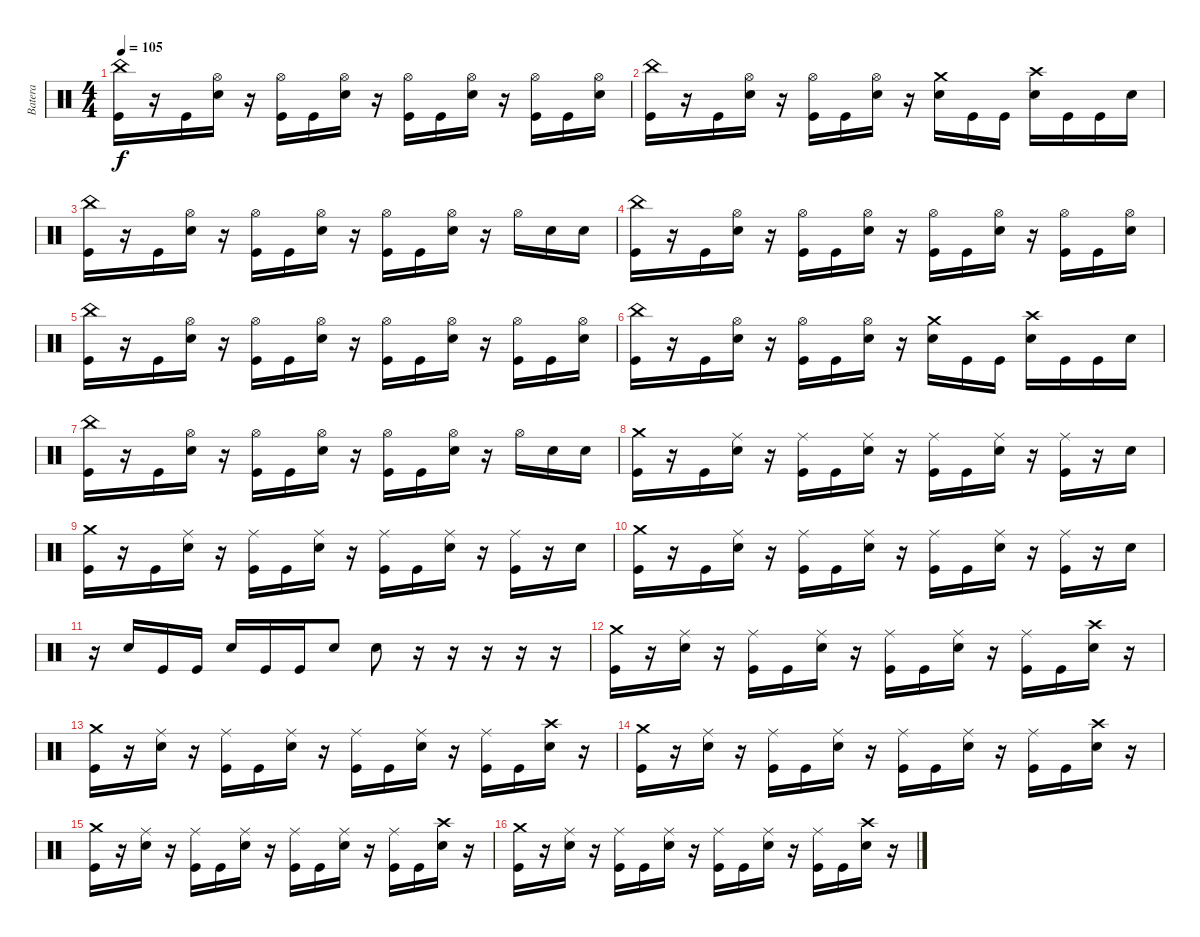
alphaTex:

\track ("Batera" "Batera") {instrument percussion}
\staff {score}
\articulation defaults
\ts (4 4)
\tempo 105
\clef neutral
\ks c
("China (hit)" "Kick (hit)").16{dy f} r.16 "Kick (hit)".16 ("Hi-Hat (open)" "Snare (hit) 2").16 r.16 ("Hi-Hat (open)" "Kick (hit)").16 "Kick (hit)".16 ("Hi-Hat (open)" "Snare (hit) 2").16 r.16 ("Hi-Hat (open)" "Kick (hit)").16 "Kick (hit)".16 ("Hi-Hat (open)" "Snare (hit) 2").16 r.16 ("Hi-Hat (open)" "Kick (hit)").16 "Kick (hit)".16 ("Hi-Hat (open)" "Snare (hit) 2").16 |
("China (hit)" "Kick (hit)").16 r.16 "Kick (hit)".16 ("Hi-Hat (open)" "Snare (hit) 2").16 r.16 ("Hi-Hat (open)" "Kick (hit)").16 "Kick (hit)".16 ("Hi-Hat (open)" "Snare (hit) 2").16 r.16 ("Crash medium (hit)" "Snare (hit) 2").16 "Kick (hit)".16 "Kick (hit)".16 ("Crash high (hit)" "Snare (hit) 2").16 "Kick (hit)".16 "Kick (hit)".16 "Snare (hit) 2".16 |
("China (hit)" "Kick (hit)").16 r.16 "Kick (hit)".16 ("Hi-Hat (open)" "Snare (hit) 2").16 r.16 ("Hi-Hat (open)" "Kick (hit)").16 "Kick (hit)".16 ("Hi-Hat (open)" "Snare (hit) 2").16 r.16 ("Hi-Hat (open)" "Kick (hit)").16 "Kick (hit)".16 ("Hi-Hat (open)" "Snare (hit) 2").16 r.16 "Hi-Hat (open)".16 "Snare (hit) 2".16 "Snare (hit) 2".16 |
("China (hit)" "Kick (hit)").16 r.16 "Kick (hit)".16 ("Hi-Hat (open)" "Snare (hit) 2").16 r.16 ("Hi-Hat (open)" "Kick (hit)").16 "Kick (hit)".16 ("Hi-Hat (open)" "Snare (hit) 2").16 r.16 ("Hi-Hat (open)" "Kick (hit)").16 "Kick (hit)".16 ("Hi-Hat (open)" "Snare (hit) 2").16 r.16 ("Hi-Hat (open)" "Kick (hit)").16 "Kick (hit)".16 ("Hi-Hat (open)" "Snare (hit) 2").16 |
("China (hit)" "Kick (hit)").16 r.16 "Kick (hit)".16 ("Hi-Hat (open)" "Snare (hit) 2").16 r.16 ("Hi-Hat (open)" "Kick (hit)").16 "Kick (hit)".16 ("Hi-Hat (open)" "Snare (hit) 2").16 r.16 ("Hi-Hat (open)" "Kick (hit)").16 "Kick (hit)".16 ("Hi-Hat (open)" "Snare (hit) 2").16 r.16 ("Hi-Hat (open)" "Kick (hit)").16 "Kick (hit)".16 ("Hi-Hat (open)" "Snare (hit) 2").16 |
("China (hit)" "Kick (hit)").16 r.16 "Kick (hit)".16 ("Hi-Hat (open)" "Snare (hit) 2").16 r.16 ("Hi-Hat (open)" "Kick (hit)").16 "Kick (hit)".16 ("Hi-Hat (open)" "Snare (hit) 2").16 r.16 ("Crash medium (hit)" "Snare (hit) 2").16 "Kick (hit)".16 "Kick (hit)".16 ("Crash high (hit)" "Snare (hit) 2").16 "Kick (hit)".16 "Kick (hit)".16 "Snare (hit) 2".16 |
("China (hit)" "Kick (hit)").16 r.16 "Kick (hit)".16 ("Hi-Hat (open)" "Snare (hit) 2").16 r.16 ("Hi-Hat (open)" "Kick (hit)").16 "Kick (hit)".16 ("Hi-Hat (open)" "Snare (hit) 2").16 r.16 ("Hi-Hat (open)" "Kick (hit)").16 "Kick (hit)".16 ("Hi-Hat (open)" "Snare (hit) 2").16 r.16 "Hi-Hat (open)".16 "Snare (hit) 2".16 "Snare (hit) 2".16 |
("Crash medium (hit)" "Kick (hit)").16 r.16 "Kick (hit)".16 ("Ride (middle)" "Snare (hit) 2").16 r.16 ("Ride (middle)" "Kick (hit)").16 "Kick (hit)".16 ("Ride (middle)" "Snare (hit) 2").16 r.16 ("Ride (middle)" "Kick (hit)").16 "Kick (hit)".16 ("Ride (middle)" "Snare (hit) 2").16 r.16 ("Ride (middle)" "Kick (hit)").16 r.16 "Snare (hit) 2".16 |
("Crash medium (hit)" "Kick (hit)").16 r.16 "Kick (hit)".16 ("Ride (middle)" "Snare (hit) 2").16 r.16 ("Ride (middle)" "Kick (hit)").16 "Kick (hit)".16 ("Ride (middle)" "Snare (hit) 2").16 r.16 ("Ride (middle)" "Kick (hit)").16 "Kick (hit)".16 ("Ride (middle)" "Snare (hit) 2").16 r.16 ("Ride (middle)" "Kick (hit)").16 r.16 "Snare (hit) 2".16 |
("Crash medium (hit)" "Kick (hit)").16 r.16 "Kick (hit)".16 ("Ride (middle)" "Snare (hit) 2").16 r.16 ("Ride (middle)" "Kick (hit)").16 "Kick (hit)".16 ("Ride (middle)" "Snare (hit) 2").16 r.16 ("Ride (middle)" "Kick (hit)").16 "Kick (hit)".16 ("Ride (middle)" "Snare (hit) 2").16 r.16 ("Ride (middle)" "Kick (hit)").16 r.16 "Snare (hit) 2".16 |
r.16 "Snare (hit) 2".16 "Kick (hit)".16 "Kick (hit)".16 "Snare (hit) 2".16 "Kick (hit)".16 "Kick (hit)".16 "Snare (hit) 2".8 "Snare (hit) 2".8 r.16 r.16 r.16 r.16 r.16 |
("Crash medium (hit)" "Kick (hit)").16 r.16 ("Ride (middle)" "Snare (hit) 2").16 r.16 ("Ride (middle)" "Kick (hit)").16 "Kick (hit)".16 ("Ride (middle)" "Snare (hit) 2").16 r.16 ("Ride (middle)" "Kick (hit)").16 "Kick (hit)".16 ("Ride (middle)" "Snare (hit) 2").16 r.16 ("Ride (middle)" "Kick (hit)").16 "Kick (hit)".16 ("Crash high (hit)" "Snare (hit) 2").16 r.16 |
("Crash medium (hit)" "Kick (hit)").16 r.16 ("Ride (middle)" "Snare (hit) 2").16 r.16 ("Ride (middle)" "Kick (hit)").16 "Kick (hit)".16 ("Ride (middle)" "Snare (hit) 2").16 r.16 ("Ride (middle)" "Kick (hit)").16 "Kick (hit)".16 ("Ride (middle)" "Snare (hit) 2").16 r.16 ("Ride (middle)" "Kick (hit)").16 "Kick (hit)".16 ("Crash high (hit)" "Snare (hit) 2").16 r.16 |
("Crash medium (hit)" "Kick (hit)").16 r.16 ("Ride (middle)" "Snare (hit) 2").16 r.16 ("Ride (middle)" "Kick (hit)").16 "Kick (hit)".16 ("Ride (middle)" "Snare (hit) 2").16 r.16 ("Ride (middle)" "Kick (hit)").16 "Kick (hit)".16 ("Ride (middle)" "Snare (hit) 2").16 r.16 ("Ride (middle)" "Kick (hit)").16 "Kick (hit)".16 ("Crash high (hit)" "Snare (hit) 2").16 r.16 |
("Crash medium (hit)" "Kick (hit)").16 r.16 ("Ride (middle)" "Snare (hit) 2").16 r.16 ("Ride (middle)" "Kick (hit)").16 "Kick (hit)".16 ("Ride (middle)" "Snare (hit) 2").16 r.16 ("Ride (middle)" "Kick (hit)").16 "Kick (hit)".16 ("Ride (middle)" "Snare (hit) 2").16 r.16 ("Ride (middle)" "Kick (hit)").16 "Kick (hit)".16 ("Crash high (hit)" "Snare (hit) 2").16 r.16 |
("Crash medium (hit)" "Kick (hit)").16 r.16 ("Ride (middle)" "Snare (hit) 2").16 r.16 ("Ride (middle)" "Kick (hit)").16 "Kick (hit)".16 ("Ride (middle)" "Snare (hit) 2").16 r.16 ("Ride (middle)" "Kick (hit)").16 "Kick (hit)".16 ("Ride (middle)" "Snare (hit) 2").16 r.16 ("Ride (middle)" "Kick (hit)").16 "Kick (hit)".16 ("Crash high (hit)" "Snare (hit) 2").16 r.16
